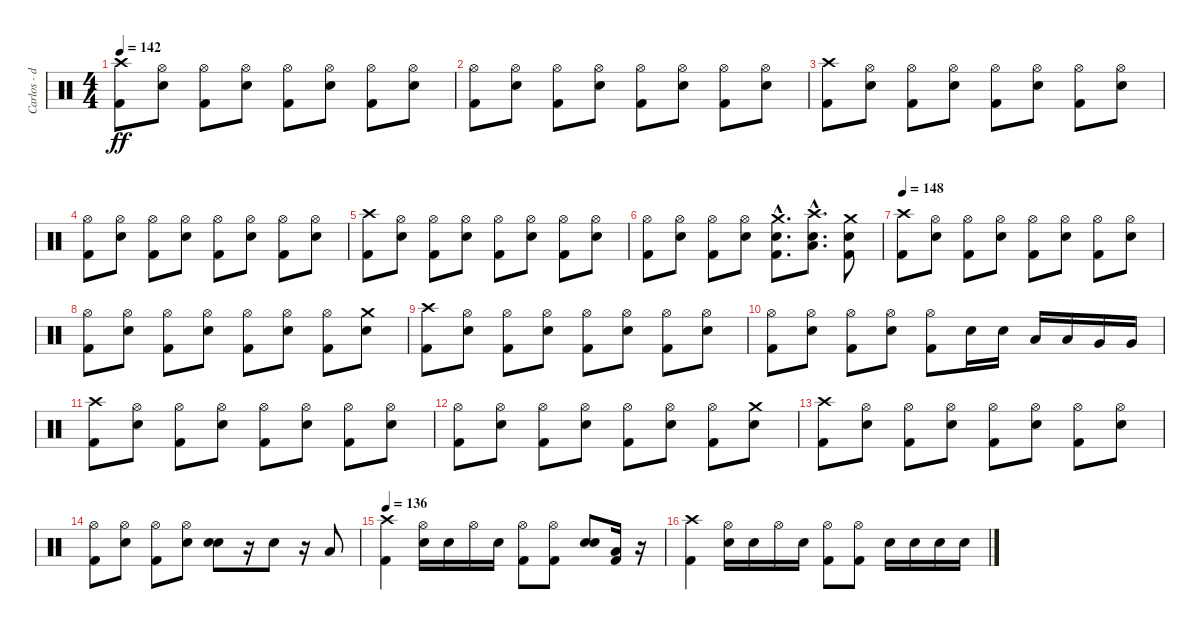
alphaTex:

\track ("Carlos - drums" "Carlos - d") {instrument percussion}
\staff {score}
\articulation defaults
\ts (4 4)
\tempo 142
\clef neutral
\ks c
("Kick (hit) 2" "Crash high (hit)").8{dy ff} ("Electric Snare (hit)" "Hi-Hat (open)").8 ("Kick (hit) 2" "Hi-Hat (open)").8 ("Electric Snare (hit)" "Hi-Hat (open)").8 ("Kick (hit) 2" "Hi-Hat (open)").8 ("Electric Snare (hit)" "Hi-Hat (open)").8 ("Kick (hit) 2" "Hi-Hat (open)").8 ("Electric Snare (hit)" "Hi-Hat (open)").8 |
("Kick (hit) 2" "Hi-Hat (open)").8 ("Electric Snare (hit)" "Hi-Hat (open)").8 ("Kick (hit) 2" "Hi-Hat (open)").8 ("Electric Snare (hit)" "Hi-Hat (open)").8 ("Kick (hit) 2" "Hi-Hat (open)").8 ("Electric Snare (hit)" "Hi-Hat (open)").8 ("Kick (hit) 2" "Hi-Hat (open)").8 ("Electric Snare (hit)" "Hi-Hat (open)").8 |
("Kick (hit) 2" "Crash high (hit)").8 ("Electric Snare (hit)" "Hi-Hat (open)").8 ("Kick (hit) 2" "Hi-Hat (open)").8 ("Electric Snare (hit)" "Hi-Hat (open)").8 ("Kick (hit) 2" "Hi-Hat (open)").8 ("Electric Snare (hit)" "Hi-Hat (open)").8 ("Kick (hit) 2" "Hi-Hat (open)").8 ("Electric Snare (hit)" "Hi-Hat (open)").8 |
("Kick (hit) 2" "Hi-Hat (open)").8 ("Electric Snare (hit)" "Hi-Hat (open)").8 ("Kick (hit) 2" "Hi-Hat (open)").8 ("Electric Snare (hit)" "Hi-Hat (open)").8 ("Kick (hit) 2" "Hi-Hat (open)").8 ("Electric Snare (hit)" "Hi-Hat (open)").8 ("Kick (hit) 2" "Hi-Hat (open)").8 ("Electric Snare (hit)" "Hi-Hat (open)").8 |
("Kick (hit) 2" "Crash high (hit)").8 ("Electric Snare (hit)" "Hi-Hat (open)").8 ("Kick (hit) 2" "Hi-Hat (open)").8 ("Electric Snare (hit)" "Hi-Hat (open)").8 ("Kick (hit) 2" "Hi-Hat (open)").8 ("Electric Snare (hit)" "Hi-Hat (open)").8 ("Kick (hit) 2" "Hi-Hat (open)").8 ("Electric Snare (hit)" "Hi-Hat (open)").8 |
("Kick (hit) 2" "Hi-Hat (open)").8 ("Electric Snare (hit)" "Hi-Hat (open)").8 ("Kick (hit) 2" "Hi-Hat (open)").8 ("Electric Snare (hit)" "Hi-Hat (open)").8 ("Electric Snare (hit)" "Kick (hit) 2" "Crash medium (hit)"{hac}).8{d} ("Electric Snare (hit)" "Low Tom (hit)" "Crash high (hit)"{hac}).8{d} ("Electric Snare (hit)" "Kick (hit) 2" "Crash medium (hit)").8 |
\tempo 148
("Kick (hit) 2" "Crash high (hit)").8 ("Electric Snare (hit)" "Hi-Hat (open)").8 ("Kick (hit) 2" "Hi-Hat (open)").8 ("Electric Snare (hit)" "Hi-Hat (open)").8 ("Kick (hit) 2" "Hi-Hat (open)").8 ("Electric Snare (hit)" "Hi-Hat (open)").8 ("Kick (hit) 2" "Hi-Hat (open)").8 ("Electric Snare (hit)" "Hi-Hat (open)").8 |
("Kick (hit) 2" "Hi-Hat (open)").8 ("Electric Snare (hit)" "Hi-Hat (open)").8 ("Kick (hit) 2" "Hi-Hat (open)").8 ("Electric Snare (hit)" "Hi-Hat (open)").8 ("Kick (hit) 2" "Hi-Hat (open)").8 ("Electric Snare (hit)" "Hi-Hat (open)").8 ("Kick (hit) 2" "Hi-Hat (open)").8 ("Electric Snare (hit)" "Crash medium (hit)").8 |
("Kick (hit) 2" "Crash high (hit)").8 ("Electric Snare (hit)" "Hi-Hat (open)").8 ("Kick (hit) 2" "Hi-Hat (open)").8 ("Electric Snare (hit)" "Hi-Hat (open)").8 ("Kick (hit) 2" "Hi-Hat (open)").8 ("Electric Snare (hit)" "Hi-Hat (open)").8 ("Kick (hit) 2" "Hi-Hat (open)").8 ("Electric Snare (hit)" "Hi-Hat (open)").8 |
("Kick (hit) 2" "Hi-Hat (open)").8 ("Electric Snare (hit)" "Hi-Hat (open)").8 ("Kick (hit) 2" "Hi-Hat (open)").8 ("Electric Snare (hit)" "Hi-Hat (open)").8 ("Kick (hit) 2" "Hi-Hat (open)").8 "Electric Snare (hit)".16 "Electric Snare (hit)".16 "Low Tom (hit)".16 "Low Tom (hit)".16 "Very Low Tom (hit)".16 "Very Low Tom (hit)".16 |
("Kick (hit) 2" "Crash high (hit)").8 ("Electric Snare (hit)" "Hi-Hat (open)").8 ("Kick (hit) 2" "Hi-Hat (open)").8 ("Electric Snare (hit)" "Hi-Hat (open)").8 ("Kick (hit) 2" "Hi-Hat (open)").8 ("Electric Snare (hit)" "Hi-Hat (open)").8 ("Kick (hit) 2" "Hi-Hat (open)").8 ("Electric Snare (hit)" "Hi-Hat (open)").8 |
("Kick (hit) 2" "Hi-Hat (open)").8 ("Electric Snare (hit)" "Hi-Hat (open)").8 ("Kick (hit) 2" "Hi-Hat (open)").8 ("Electric Snare (hit)" "Hi-Hat (open)").8 ("Kick (hit) 2" "Hi-Hat (open)").8 ("Electric Snare (hit)" "Hi-Hat (open)").8 ("Kick (hit) 2" "Hi-Hat (open)").8 ("Electric Snare (hit)" "Crash medium (hit)").8 |
("Kick (hit) 2" "Crash high (hit)").8 ("Electric Snare (hit)" "Hi-Hat (open)").8 ("Kick (hit) 2" "Hi-Hat (open)").8 ("Electric Snare (hit)" "Hi-Hat (open)").8 ("Kick (hit) 2" "Hi-Hat (open)").8 ("Electric Snare (hit)" "Hi-Hat (open)").8 ("Kick (hit) 2" "Hi-Hat (open)").8 ("Electric Snare (hit)" "Hi-Hat (open)").8 |
("Kick (hit) 2" "Hi-Hat (open)").8 ("Electric Snare (hit)" "Hi-Hat (open)").8 ("Kick (hit) 2" "Hi-Hat (open)").8 ("Electric Snare (hit)" "Hi-Hat (open)").8 ("Electric Snare (hit)" "Electric Snare (hit)").8 r.16 "Electric Snare (hit)".8 r.16 "Low Tom (hit)".8 |
\tempo 136
("Kick (hit) 2" "Crash high (hit)").4 ("Electric Snare (hit)" "Hi-Hat (open)").16 "Electric Snare (hit)".16 "Hi-Hat (open)".16 "Electric Snare (hit)".16 ("Kick (hit) 2" "Hi-Hat (open)").8 ("Hi-Hat (open)" "Kick (hit) 2").8 ("Electric Snare (hit)" "Electric Snare (hit)").8 ("Kick (hit) 2" "Low Tom (hit)").16 r.16 |
("Kick (hit) 2" "Crash high (hit)").4 ("Electric Snare (hit)" "Hi-Hat (open)").16 "Electric Snare (hit)".16 "Hi-Hat (open)".16 "Electric Snare (hit)".16 ("Kick (hit) 2" "Hi-Hat (open)").8 ("Hi-Hat (open)" "Kick (hit) 2").8 "Electric Snare (hit)".16 "Electric Snare (hit)".16 "Electric Snare (hit)".16 "Electric Snare (hit)".16
